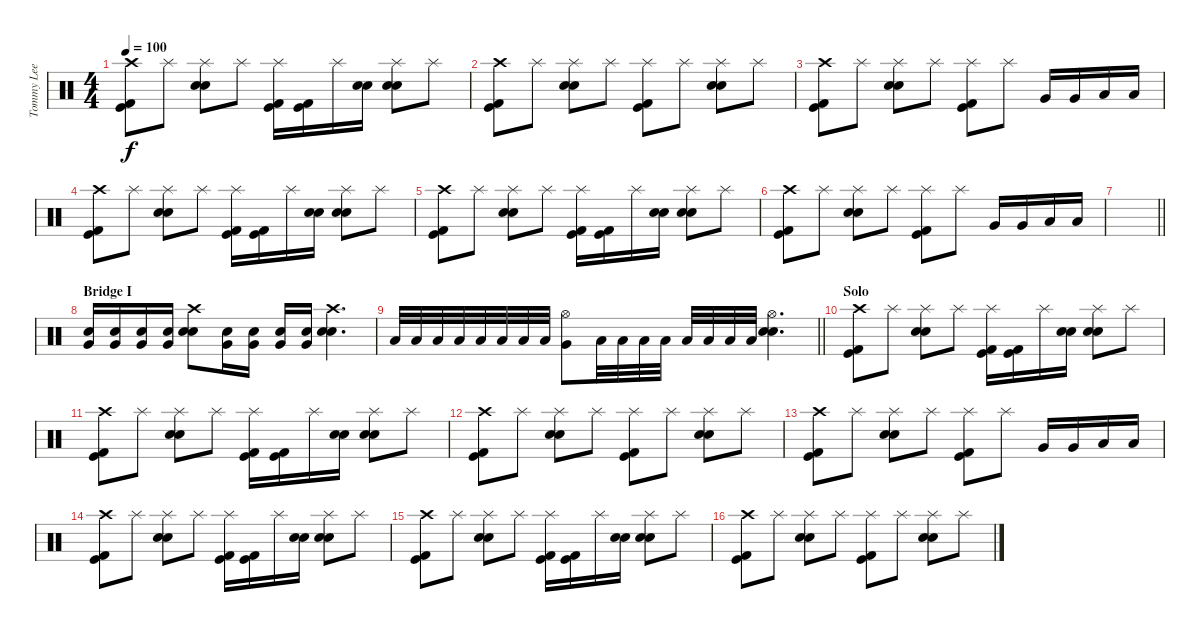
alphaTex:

\track ("Tommy Lee" "Tommy Lee") {instrument percussion}
\staff {score}
\articulation defaults
\ts (4 4)
\tempo 100
\clef neutral
\ks c
("Crash high (hit)" "Kick (hit) 2" "Kick (hit)").8{dy f} "Splash (hit)".8 ("Splash (hit)" "Electric Snare (hit)" "Snare (hit) 2").8 "Splash (hit)".8 ("Splash (hit)" "Kick (hit) 2" "Kick (hit)").16 ("Kick (hit) 2" "Kick (hit)").16 "Splash (hit)".16 ("Electric Snare (hit)" "Snare (hit) 2").16 ("Splash (hit)" "Electric Snare (hit)" "Snare (hit) 2").8 "Splash (hit)".8 |
("Crash high (hit)" "Kick (hit) 2" "Kick (hit)").8 "Splash (hit)".8 ("Splash (hit)" "Electric Snare (hit)" "Snare (hit) 2").8 "Splash (hit)".8 ("Splash (hit)" "Kick (hit) 2" "Kick (hit)").8 "Splash (hit)".8 ("Splash (hit)" "Electric Snare (hit)" "Snare (hit) 2").8 "Splash (hit)".8 |
("Crash high (hit)" "Kick (hit) 2" "Kick (hit)").8 "Splash (hit)".8 ("Splash (hit)" "Electric Snare (hit)" "Snare (hit) 2").8 "Splash (hit)".8 ("Splash (hit)" "Kick (hit) 2" "Kick (hit)").8 "Splash (hit)".8 "Very Low Tom (hit)".16 "Very Low Tom (hit)".16 "Low Floor Tom (hit)".16 "Low Floor Tom (hit)".16 |
("Crash high (hit)" "Kick (hit) 2" "Kick (hit)").8 "Splash (hit)".8 ("Splash (hit)" "Electric Snare (hit)" "Snare (hit) 2").8 "Splash (hit)".8 ("Splash (hit)" "Kick (hit) 2" "Kick (hit)").16 ("Kick (hit) 2" "Kick (hit)").16 "Splash (hit)".16 ("Electric Snare (hit)" "Snare (hit) 2").16 ("Splash (hit)" "Electric Snare (hit)" "Snare (hit) 2").8 "Splash (hit)".8 |
("Crash high (hit)" "Kick (hit) 2" "Kick (hit)").8 "Splash (hit)".8 ("Splash (hit)" "Electric Snare (hit)" "Snare (hit) 2").8 "Splash (hit)".8 ("Splash (hit)" "Kick (hit) 2" "Kick (hit)").16 ("Kick (hit) 2" "Kick (hit)").16 "Splash (hit)".16 ("Electric Snare (hit)" "Snare (hit) 2").16 ("Splash (hit)" "Electric Snare (hit)" "Snare (hit) 2").8 "Splash (hit)".8 |
("Crash high (hit)" "Kick (hit) 2" "Kick (hit)").8 "Splash (hit)".8 ("Splash (hit)" "Electric Snare (hit)" "Snare (hit) 2").8 "Splash (hit)".8 ("Splash (hit)" "Kick (hit) 2" "Kick (hit)").8 "Splash (hit)".8 "Very Low Tom (hit)".16 "Very Low Tom (hit)".16 "Low Floor Tom (hit)".16 "Low Floor Tom (hit)".16 |
\barLineRight lightlight
|
\section ("" "Bridge I")
("Very Low Tom (hit)" "Snare (hit) 2").16 ("Very Low Tom (hit)" "Snare (hit) 2").16 ("Very Low Tom (hit)" "Snare (hit) 2").16 ("Very Low Tom (hit)" "Snare (hit) 2").16 ("Crash high (hit)" "Electric Snare (hit)" "Snare (hit) 2").8 ("Very Low Tom (hit)" "Snare (hit) 2").16 ("Very Low Tom (hit)" "Snare (hit) 2").16 ("Very Low Tom (hit)" "Snare (hit) 2").16 ("Very Low Tom (hit)" "Snare (hit) 2").16 ("Crash high (hit)" "Electric Snare (hit)" "Snare (hit) 2").4{d} |
\barLineRight lightlight "Low Tom (hit)".32 "Low Tom (hit)".32 "Low Tom (hit)".32 "Low Tom (hit)".32 "Low Tom (hit)".32 "Low Tom (hit)".32 "Low Tom (hit)".32 "Low Tom (hit)".32
("Hi-Hat (open)" "Very Low Tom (hit)").8 "Low Tom (hit)".32 "Low Tom (hit)".32 "Low Tom (hit)".32 "Low Tom (hit)".32 "Low Tom (hit)".32 "Low Tom (hit)".32 "Low Tom (hit)".32 "Low Tom (hit)".32 ("Hi-Hat (open)" "Electric Snare (hit)" "Snare (hit) 2").4{d} |
\section ("" "Solo")
("Crash high (hit)" "Kick (hit) 2" "Kick (hit)").8 "Splash (hit)".8 ("Splash (hit)" "Electric Snare (hit)" "Snare (hit) 2").8 "Splash (hit)".8 ("Splash (hit)" "Kick (hit) 2" "Kick (hit)").16 ("Kick (hit) 2" "Kick (hit)").16 "Splash (hit)".16 ("Electric Snare (hit)" "Snare (hit) 2").16 ("Splash (hit)" "Electric Snare (hit)" "Snare (hit) 2").8 "Splash (hit)".8 |
("Crash high (hit)" "Kick (hit) 2" "Kick (hit)").8 "Splash (hit)".8 ("Splash (hit)" "Electric Snare (hit)" "Snare (hit) 2").8 "Splash (hit)".8 ("Splash (hit)" "Kick (hit) 2" "Kick (hit)").16 ("Kick (hit) 2" "Kick (hit)").16 "Splash (hit)".16 ("Electric Snare (hit)" "Snare (hit) 2").16 ("Splash (hit)" "Electric Snare (hit)" "Snare (hit) 2").8 "Splash (hit)".8 |
("Crash high (hit)" "Kick (hit) 2" "Kick (hit)").8 "Splash (hit)".8 ("Splash (hit)" "Electric Snare (hit)" "Snare (hit) 2").8 "Splash (hit)".8 ("Splash (hit)" "Kick (hit) 2" "Kick (hit)").8 "Splash (hit)".8 ("Splash (hit)" "Electric Snare (hit)" "Snare (hit) 2").8 "Splash (hit)".8 |
("Crash high (hit)" "Kick (hit) 2" "Kick (hit)").8 "Splash (hit)".8 ("Splash (hit)" "Electric Snare (hit)" "Snare (hit) 2").8 "Splash (hit)".8 ("Splash (hit)" "Kick (hit) 2" "Kick (hit)").8 "Splash (hit)".8 "Very Low Tom (hit)".16 "Very Low Tom (hit)".16 "Low Floor Tom (hit)".16 "Low Floor Tom (hit)".16 |
("Crash high (hit)" "Kick (hit) 2" "Kick (hit)").8 "Splash (hit)".8 ("Splash (hit)" "Electric Snare (hit)" "Snare (hit) 2").8 "Splash (hit)".8 ("Splash (hit)" "Kick (hit) 2" "Kick (hit)").16 ("Kick (hit) 2" "Kick (hit)").16 "Splash (hit)".16 ("Electric Snare (hit)" "Snare (hit) 2").16 ("Splash (hit)" "Electric Snare (hit)" "Snare (hit) 2").8 "Splash (hit)".8 |
("Crash high (hit)" "Kick (hit) 2" "Kick (hit)").8 "Splash (hit)".8 ("Splash (hit)" "Electric Snare (hit)" "Snare (hit) 2").8 "Splash (hit)".8 ("Splash (hit)" "Kick (hit) 2" "Kick (hit)").16 ("Kick (hit) 2" "Kick (hit)").16 "Splash (hit)".16 ("Electric Snare (hit)" "Snare (hit) 2").16 ("Splash (hit)" "Electric Snare (hit)" "Snare (hit) 2").8 "Splash (hit)".8 |
("Crash high (hit)" "Kick (hit) 2" "Kick (hit)").8 "Splash (hit)".8 ("Splash (hit)" "Electric Snare (hit)" "Snare (hit) 2").8 "Splash (hit)".8 ("Splash (hit)" "Kick (hit) 2" "Kick (hit)").8 "Splash (hit)".8 ("Splash (hit)" "Electric Snare (hit)" "Snare (hit) 2").8 "Splash (hit)".8
